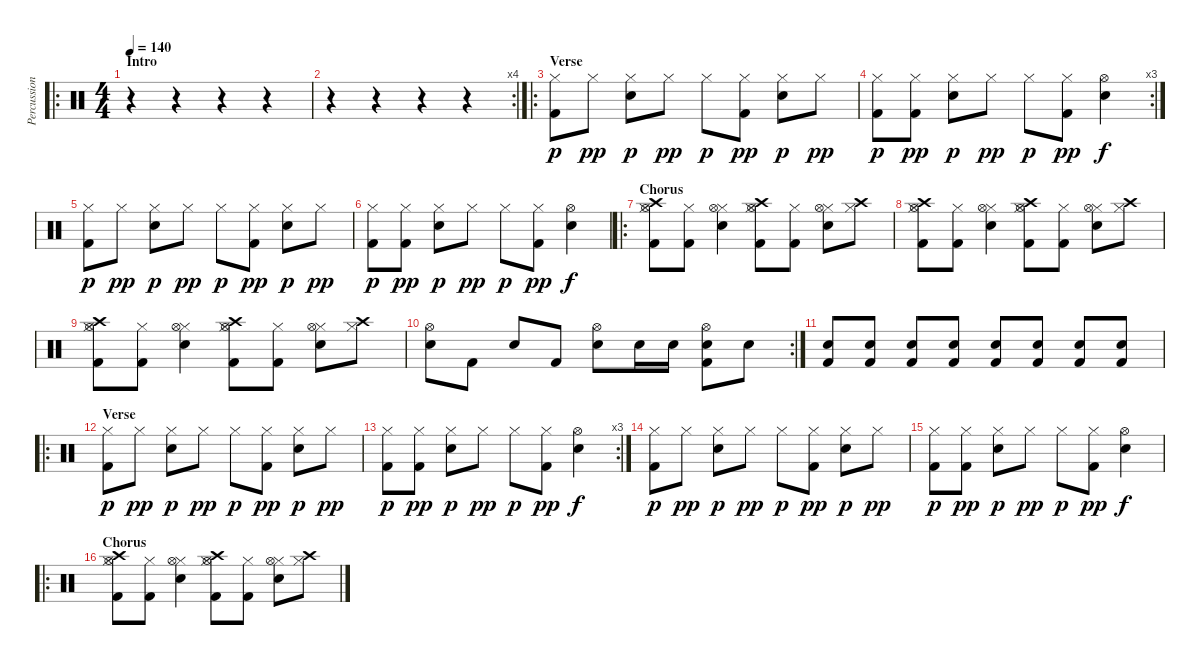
\track ("Percussions" "Percussion") {instrument percussion}
\staff {score}
\articulation defaults
\ro
\ts (4 4)
\section ("" "Intro")
\tempo 140
\clef neutral
\ks c
r.4{dy p} r.4 r.4 r.4 |
\rc 4
r.4 r.4 r.4 r.4 |
\ro
\section ("" "Verse")
("Hi-Hat (closed)" "Kick (hit) 2").8 "Hi-Hat (closed)".8{dy pp} ("Hi-Hat (closed)" "Electric Snare (hit)").8{dy p} "Hi-Hat (closed)".8{dy pp} "Hi-Hat (closed)".8{dy p} ("Hi-Hat (closed)" "Kick (hit) 2").8{dy pp} ("Hi-Hat (closed)" "Electric Snare (hit)").8{dy p} "Hi-Hat (closed)".8{dy pp} |
\rc 3
("Hi-Hat (closed)" "Kick (hit) 2").8{dy p} ("Hi-Hat (closed)" "Kick (hit) 2").8{dy pp} ("Hi-Hat (closed)" "Electric Snare (hit)").8{dy p} "Hi-Hat (closed)".8{dy pp} "Hi-Hat (closed)".8{dy p} ("Hi-Hat (closed)" "Kick (hit) 2").8{dy pp} ("Hi-Hat (open)" "Electric Snare (hit)").4{dy f} |
("Hi-Hat (closed)" "Kick (hit) 2").8{dy p} "Hi-Hat (closed)".8{dy pp} ("Hi-Hat (closed)" "Electric Snare (hit)").8{dy p} "Hi-Hat (closed)".8{dy pp} "Hi-Hat (closed)".8{dy p} ("Hi-Hat (closed)" "Kick (hit) 2").8{dy pp} ("Hi-Hat (closed)" "Electric Snare (hit)").8{dy p} "Hi-Hat (closed)".8{dy pp} |
("Hi-Hat (closed)" "Kick (hit) 2").8{dy p} ("Hi-Hat (closed)" "Kick (hit) 2").8{dy pp} ("Hi-Hat (closed)" "Electric Snare (hit)").8{dy p} "Hi-Hat (closed)".8{dy pp} "Hi-Hat (closed)".8{dy p} ("Hi-Hat (closed)" "Kick (hit) 2").8{dy pp} ("Hi-Hat (open)" "Electric Snare (hit)").4{dy f} |
\ro
\section ("" "Chorus")
("Hi-Hat (closed)" "Kick (hit) 2" "Hi-Hat (open)" "Crash high (hit)").8 ("Hi-Hat (closed)" "Kick (hit) 2").8 ("Hi-Hat (closed)" "Electric Snare (hit)" "Hi-Hat (open)").4 ("Hi-Hat (closed)" "Kick (hit) 2" "Hi-Hat (open)" "Crash high (hit)").8 ("Hi-Hat (closed)" "Kick (hit) 2").8 ("Hi-Hat (closed)" "Electric Snare (hit)" "Hi-Hat (open)").8 ("Hi-Hat (closed)" "Crash high (hit)").8 |
("Hi-Hat (closed)" "Kick (hit) 2" "Hi-Hat (open)" "Crash high (hit)").8 ("Hi-Hat (closed)" "Kick (hit) 2").8 ("Hi-Hat (closed)" "Electric Snare (hit)" "Hi-Hat (open)").4 ("Hi-Hat (closed)" "Kick (hit) 2" "Hi-Hat (open)" "Crash high (hit)").8 ("Hi-Hat (closed)" "Kick (hit) 2").8 ("Hi-Hat (closed)" "Electric Snare (hit)" "Hi-Hat (open)").8 ("Hi-Hat (closed)" "Crash high (hit)").8 |
("Hi-Hat (closed)" "Kick (hit) 2" "Hi-Hat (open)" "Crash high (hit)").8 ("Hi-Hat (closed)" "Kick (hit) 2").8 ("Hi-Hat (closed)" "Electric Snare (hit)" "Hi-Hat (open)").4 ("Hi-Hat (closed)" "Kick (hit) 2" "Hi-Hat (open)" "Crash high (hit)").8 ("Hi-Hat (closed)" "Kick (hit) 2").8 ("Hi-Hat (closed)" "Electric Snare (hit)" "Hi-Hat (open)").8 ("Hi-Hat (closed)" "Crash high (hit)").8 |
\rc 2
("Electric Snare (hit)" "Hi-Hat (open)").8 "Kick (hit) 2".8 "Electric Snare (hit)".8 "Kick (hit) 2".8 ("Electric Snare (hit)" "Hi-Hat (open)").8 "Electric Snare (hit)".16 "Electric Snare (hit)".16 ("Electric Snare (hit)" "Kick (hit) 2" "Hi-Hat (open)").8 "Electric Snare (hit)".8 |
("Electric Snare (hit)" "Kick (hit) 2").8 ("Electric Snare (hit)" "Kick (hit) 2").8 ("Electric Snare (hit)" "Kick (hit) 2").8 ("Electric Snare (hit)" "Kick (hit) 2").8 ("Electric Snare (hit)" "Kick (hit) 2").8 ("Electric Snare (hit)" "Kick (hit) 2").8 ("Electric Snare (hit)" "Kick (hit) 2").8 ("Electric Snare (hit)" "Kick (hit) 2").8 |
\ro
\section ("" "Verse")
("Hi-Hat (closed)" "Kick (hit) 2").8{dy p} "Hi-Hat (closed)".8{dy pp} ("Hi-Hat (closed)" "Electric Snare (hit)").8{dy p} "Hi-Hat (closed)".8{dy pp} "Hi-Hat (closed)".8{dy p} ("Hi-Hat (closed)" "Kick (hit) 2").8{dy pp} ("Hi-Hat (closed)" "Electric Snare (hit)").8{dy p} "Hi-Hat (closed)".8{dy pp} |
\rc 3
("Hi-Hat (closed)" "Kick (hit) 2").8{dy p} ("Hi-Hat (closed)" "Kick (hit) 2").8{dy pp} ("Hi-Hat (closed)" "Electric Snare (hit)").8{dy p} "Hi-Hat (closed)".8{dy pp} "Hi-Hat (closed)".8{dy p} ("Hi-Hat (closed)" "Kick (hit) 2").8{dy pp} ("Hi-Hat (open)" "Electric Snare (hit)").4{dy f} |
("Hi-Hat (closed)" "Kick (hit) 2").8{dy p} "Hi-Hat (closed)".8{dy pp} ("Hi-Hat (closed)" "Electric Snare (hit)").8{dy p} "Hi-Hat (closed)".8{dy pp} "Hi-Hat (closed)".8{dy p} ("Hi-Hat (closed)" "Kick (hit) 2").8{dy pp} ("Hi-Hat (closed)" "Electric Snare (hit)").8{dy p} "Hi-Hat (closed)".8{dy pp} |
("Hi-Hat (closed)" "Kick (hit) 2").8{dy p} ("Hi-Hat (closed)" "Kick (hit) 2").8{dy pp} ("Hi-Hat (closed)" "Electric Snare (hit)").8{dy p} "Hi-Hat (closed)".8{dy pp} "Hi-Hat (closed)".8{dy p} ("Hi-Hat (closed)" "Kick (hit) 2").8{dy pp} ("Hi-Hat (open)" "Electric Snare (hit)").4{dy f} |
\ro
\section ("" "Chorus")
("Hi-Hat (closed)" "Kick (hit) 2" "Hi-Hat (open)" "Crash high (hit)").8 ("Hi-Hat (closed)" "Kick (hit) 2").8 ("Hi-Hat (closed)" "Electric Snare (hit)" "Hi-Hat (open)").4 ("Hi-Hat (closed)" "Kick (hit) 2" "Hi-Hat (open)" "Crash high (hit)").8 ("Hi-Hat (closed)" "Kick (hit) 2").8 ("Hi-Hat (closed)" "Electric Snare (hit)" "Hi-Hat (open)").8 ("Hi-Hat (closed)" "Crash high (hit)").8
